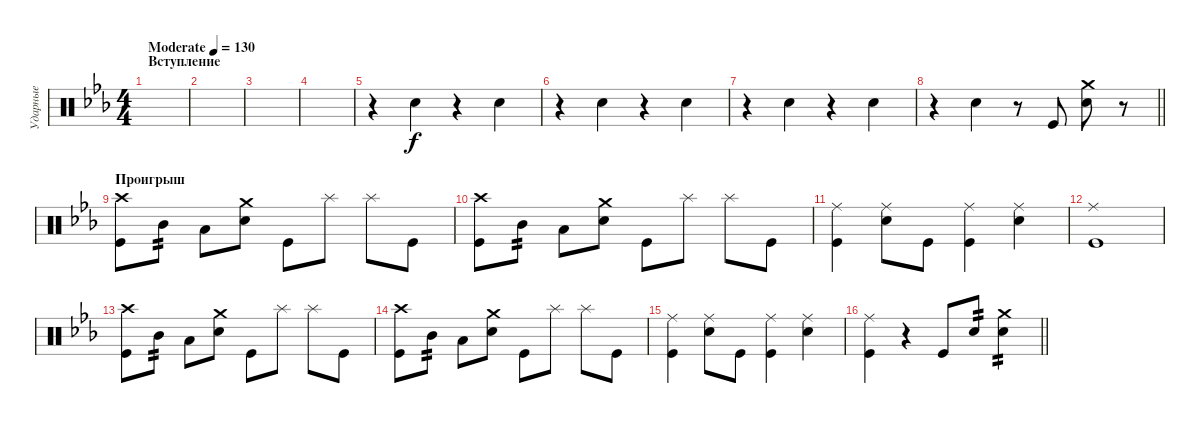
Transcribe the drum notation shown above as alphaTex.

\track ("Ударные" "Ударные") {instrument percussion}
\staff {score}
\articulation defaults
\ts (4 4)
\section ("" "Вступление")
\tempo (130 "Moderate")
\clef neutral
\ks cminor
|
|
|
|
r.4 "Electric Snare (hit)".4 r.4 "Electric Snare (hit)".4 |
r.4 "Electric Snare (hit)".4 r.4 "Electric Snare (hit)".4 |
r.4 "Electric Snare (hit)".4 r.4 "Electric Snare (hit)".4 |
\barLineRight lightlight
r.4 "Electric Snare (hit)".4 r.8 "Kick (hit)".8 ("Crash medium (hit)" "Snare (hit) 2").8 r.8 |
\section ("" "Проигрыш")
("Crash high (hit)" "Kick (hit)").8 "Mid Tom (hit)".8{tp 2} "Low Tom (hit)".8 ("Crash medium (hit)" "Snare (hit) 2").8 "Kick (hit)".8 "Splash (hit)".8 "Splash (hit)".8 "Kick (hit)".8 |
("Crash high (hit)" "Kick (hit)").8 "Mid Tom (hit)".8{tp 2} "Low Tom (hit)".8 ("Crash medium (hit)" "Snare (hit) 2").8 "Kick (hit)".8 "Splash (hit)".8 "Splash (hit)".8 "Kick (hit)".8 |
("Ride (middle)" "Kick (hit)").4 ("Ride (middle)" "Snare (hit) 2").8 "Kick (hit)".8 ("Ride (middle)" "Kick (hit)").4 ("Ride (middle)" "Snare (hit) 2").4 |
("Ride (middle)" "Kick (hit)").1 |
("Crash high (hit)" "Kick (hit)").8 "Mid Tom (hit)".8{tp 2} "Low Tom (hit)".8 ("Crash medium (hit)" "Snare (hit) 2").8 "Kick (hit)".8 "Splash (hit)".8 "Splash (hit)".8 "Kick (hit)".8 |
("Crash high (hit)" "Kick (hit)").8 "Mid Tom (hit)".8{tp 2} "Low Tom (hit)".8 ("Crash medium (hit)" "Snare (hit) 2").8 "Kick (hit)".8 "Splash (hit)".8 "Splash (hit)".8 "Kick (hit)".8 |
("Ride (middle)" "Kick (hit)").4 ("Ride (middle)" "Snare (hit) 2").8 "Kick (hit)".8 ("Ride (middle)" "Kick (hit)").4 ("Ride (middle)" "Snare (hit) 2").4 |
\barLineRight lightlight
("Ride (middle)" "Kick (hit)").4 r.4 "Kick (hit)".8 "Snare (hit) 2".8{tp 2} ("Crash medium (hit)" "Snare (hit) 2").4{tp 2}
